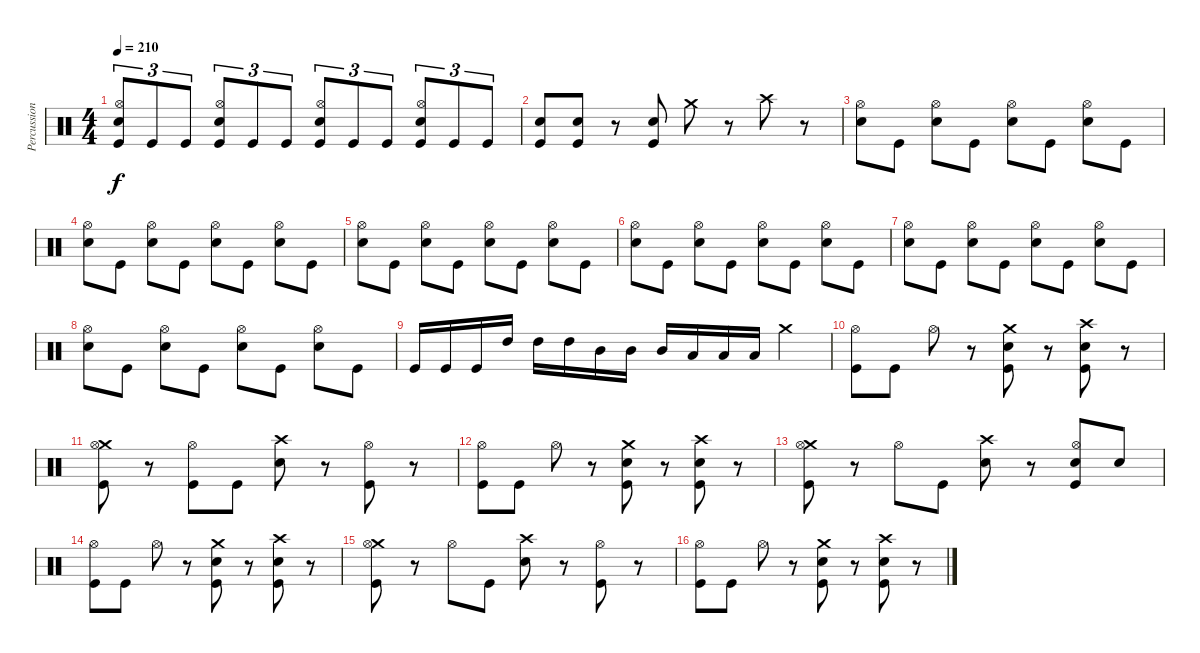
\track ("Percussion" "Percussion") {instrument percussion}
\staff {score}
\articulation defaults
\ts (4 4)
\tempo 210
\clef neutral
\ks c
("Snare (hit) 2" "Hi-Hat (open)" "Kick (hit)").8{tu (3 2) dy f} "Kick (hit)".8{tu (3 2)} "Kick (hit)".8{tu (3 2)} ("Snare (hit) 2" "Hi-Hat (open)" "Kick (hit)").8{tu (3 2)} "Kick (hit)".8{tu (3 2)} "Kick (hit)".8{tu (3 2)} ("Snare (hit) 2" "Hi-Hat (open)" "Kick (hit)").8{tu (3 2)} "Kick (hit)".8{tu (3 2)} "Kick (hit)".8{tu (3 2)} ("Snare (hit) 2" "Hi-Hat (open)" "Kick (hit)").8{tu (3 2)} "Kick (hit)".8{tu (3 2)} "Kick (hit)".8{tu (3 2)} |
("Snare (hit) 2" "Kick (hit)").8 ("Snare (hit) 2" "Kick (hit)").8 r.8 ("Snare (hit) 2" "Kick (hit)").8 "Crash medium (hit)".8 r.8 "Crash high (hit)".8 r.8 |
("Snare (hit) 2" "Hi-Hat (open)").8 "Kick (hit)".8 ("Snare (hit) 2" "Hi-Hat (open)").8 "Kick (hit)".8 ("Snare (hit) 2" "Hi-Hat (open)").8 "Kick (hit)".8 ("Snare (hit) 2" "Hi-Hat (open)").8 "Kick (hit)".8 |
("Snare (hit) 2" "Hi-Hat (open)").8 "Kick (hit)".8 ("Snare (hit) 2" "Hi-Hat (open)").8 "Kick (hit)".8 ("Snare (hit) 2" "Hi-Hat (open)").8 "Kick (hit)".8 ("Snare (hit) 2" "Hi-Hat (open)").8 "Kick (hit)".8 |
("Snare (hit) 2" "Hi-Hat (open)").8 "Kick (hit)".8 ("Snare (hit) 2" "Hi-Hat (open)").8 "Kick (hit)".8 ("Snare (hit) 2" "Hi-Hat (open)").8 "Kick (hit)".8 ("Snare (hit) 2" "Hi-Hat (open)").8 "Kick (hit)".8 |
("Snare (hit) 2" "Hi-Hat (open)").8 "Kick (hit)".8 ("Snare (hit) 2" "Hi-Hat (open)").8 "Kick (hit)".8 ("Snare (hit) 2" "Hi-Hat (open)").8 "Kick (hit)".8 ("Snare (hit) 2" "Hi-Hat (open)").8 "Kick (hit)".8 |
("Snare (hit) 2" "Hi-Hat (open)").8 "Kick (hit)".8 ("Snare (hit) 2" "Hi-Hat (open)").8 "Kick (hit)".8 ("Snare (hit) 2" "Hi-Hat (open)").8 "Kick (hit)".8 ("Snare (hit) 2" "Hi-Hat (open)").8 "Kick (hit)".8 |
("Snare (hit) 2" "Hi-Hat (open)").8 "Kick (hit)".8 ("Snare (hit) 2" "Hi-Hat (open)").8 "Kick (hit)".8 ("Snare (hit) 2" "Hi-Hat (open)").8 "Kick (hit)".8 ("Snare (hit) 2" "Hi-Hat (open)").8 "Kick (hit)".8 |
"Kick (hit)".16 "Kick (hit)".16 "Kick (hit)".16 "High Tom (hit)".16 "High Tom (hit)".16 "High Tom (hit)".16 "Mid Tom (hit)".16 "Mid Tom (hit)".16 "Mid Tom (hit)".16 "Low Tom (hit)".16 "Low Tom (hit)".16 "Low Tom (hit)".16 "Crash medium (hit)".4 |
("Hi-Hat (open)" "Kick (hit)").8 "Kick (hit)".8 "Hi-Hat (open)".8 r.8 ("Crash medium (hit)" "Snare (hit) 2" "Kick (hit)").8 r.8 ("Crash high (hit)" "Snare (hit) 2" "Kick (hit)").8 r.8 |
("Crash medium (hit)" "Hi-Hat (open)" "Kick (hit)").8 r.8 ("Hi-Hat (open)" "Kick (hit)").8 "Kick (hit)".8 ("Crash high (hit)" "Snare (hit) 2").8 r.8 ("Hi-Hat (open)" "Kick (hit)").8 r.8 |
("Hi-Hat (open)" "Kick (hit)").8 "Kick (hit)".8 "Hi-Hat (open)".8 r.8 ("Crash medium (hit)" "Snare (hit) 2" "Kick (hit)").8 r.8 ("Crash high (hit)" "Snare (hit) 2" "Kick (hit)").8 r.8 |
("Crash medium (hit)" "Hi-Hat (open)" "Kick (hit)").8 r.8 "Hi-Hat (open)".8 "Kick (hit)".8 ("Crash high (hit)" "Snare (hit) 2").8 r.8 ("Snare (hit) 2" "Hi-Hat (open)" "Kick (hit)").8 "Snare (hit) 2".8 |
("Hi-Hat (open)" "Kick (hit)").8 "Kick (hit)".8 "Hi-Hat (open)".8 r.8 ("Crash medium (hit)" "Snare (hit) 2" "Kick (hit)").8 r.8 ("Crash high (hit)" "Snare (hit) 2" "Kick (hit)").8 r.8 |
("Crash medium (hit)" "Hi-Hat (open)" "Kick (hit)").8 r.8 "Hi-Hat (open)".8 "Kick (hit)".8 ("Crash high (hit)" "Snare (hit) 2").8 r.8 ("Hi-Hat (open)" "Kick (hit)").8 r.8 |
("Hi-Hat (open)" "Kick (hit)").8 "Kick (hit)".8 "Hi-Hat (open)".8 r.8 ("Crash medium (hit)" "Snare (hit) 2" "Kick (hit)").8 r.8 ("Crash high (hit)" "Snare (hit) 2" "Kick (hit)").8 r.8
